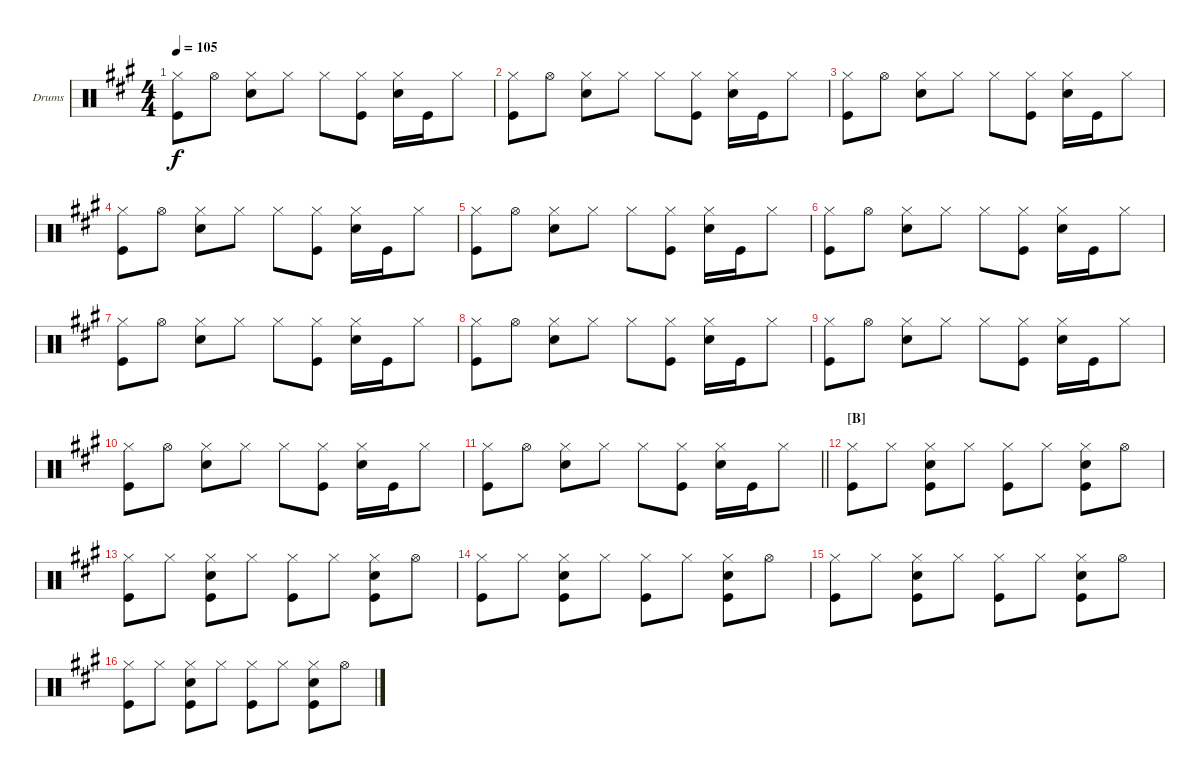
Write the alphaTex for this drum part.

\bracketExtendMode groupsimilarinstruments
\firstSystemTrackNameOrientation horizontal
\otherSystemsTrackNameOrientation horizontal
\track ("Fabrizio Moretti" "Drums") {instrument percussion}
\staff {score}
\articulation defaults
\ts (4 4)
\tempo 105
\clef neutral
\ks a
("Hi-Hat (closed)" "Kick (hit)").8{dy f} "Hi-Hat (open)".8 ("Hi-Hat (closed)" "Snare (hit) 2").8 "Hi-Hat (closed)".8 "Hi-Hat (closed)".8 ("Hi-Hat (closed)" "Kick (hit)").8 ("Hi-Hat (closed)" "Snare (hit) 2").16 "Kick (hit)".16 "Hi-Hat (closed)".8 |
("Hi-Hat (closed)" "Kick (hit)").8 "Hi-Hat (open)".8 ("Hi-Hat (closed)" "Snare (hit) 2").8 "Hi-Hat (closed)".8 "Hi-Hat (closed)".8 ("Hi-Hat (closed)" "Kick (hit)").8 ("Hi-Hat (closed)" "Snare (hit) 2").16 "Kick (hit)".16 "Hi-Hat (closed)".8 |
("Hi-Hat (closed)" "Kick (hit)").8 "Hi-Hat (open)".8 ("Hi-Hat (closed)" "Snare (hit) 2").8 "Hi-Hat (closed)".8 "Hi-Hat (closed)".8 ("Hi-Hat (closed)" "Kick (hit)").8 ("Hi-Hat (closed)" "Snare (hit) 2").16 "Kick (hit)".16 "Hi-Hat (closed)".8 |
("Hi-Hat (closed)" "Kick (hit)").8 "Hi-Hat (open)".8 ("Hi-Hat (closed)" "Snare (hit) 2").8 "Hi-Hat (closed)".8 "Hi-Hat (closed)".8 ("Hi-Hat (closed)" "Kick (hit)").8 ("Hi-Hat (closed)" "Snare (hit) 2").16 "Kick (hit)".16 "Hi-Hat (closed)".8 |
("Hi-Hat (closed)" "Kick (hit)").8 "Hi-Hat (open)".8 ("Hi-Hat (closed)" "Snare (hit) 2").8 "Hi-Hat (closed)".8 "Hi-Hat (closed)".8 ("Hi-Hat (closed)" "Kick (hit)").8 ("Hi-Hat (closed)" "Snare (hit) 2").16 "Kick (hit)".16 "Hi-Hat (closed)".8 |
("Hi-Hat (closed)" "Kick (hit)").8 "Hi-Hat (open)".8 ("Hi-Hat (closed)" "Snare (hit) 2").8 "Hi-Hat (closed)".8 "Hi-Hat (closed)".8 ("Hi-Hat (closed)" "Kick (hit)").8 ("Hi-Hat (closed)" "Snare (hit) 2").16 "Kick (hit)".16 "Hi-Hat (closed)".8 |
("Hi-Hat (closed)" "Kick (hit)").8 "Hi-Hat (open)".8 ("Hi-Hat (closed)" "Snare (hit) 2").8 "Hi-Hat (closed)".8 "Hi-Hat (closed)".8 ("Hi-Hat (closed)" "Kick (hit)").8 ("Hi-Hat (closed)" "Snare (hit) 2").16 "Kick (hit)".16 "Hi-Hat (closed)".8 |
("Hi-Hat (closed)" "Kick (hit)").8 "Hi-Hat (open)".8 ("Hi-Hat (closed)" "Snare (hit) 2").8 "Hi-Hat (closed)".8 "Hi-Hat (closed)".8 ("Hi-Hat (closed)" "Kick (hit)").8 ("Hi-Hat (closed)" "Snare (hit) 2").16 "Kick (hit)".16 "Hi-Hat (closed)".8 |
("Hi-Hat (closed)" "Kick (hit)").8 "Hi-Hat (open)".8 ("Hi-Hat (closed)" "Snare (hit) 2").8 "Hi-Hat (closed)".8 "Hi-Hat (closed)".8 ("Hi-Hat (closed)" "Kick (hit)").8 ("Hi-Hat (closed)" "Snare (hit) 2").16 "Kick (hit)".16 "Hi-Hat (closed)".8 |
("Hi-Hat (closed)" "Kick (hit)").8 "Hi-Hat (open)".8 ("Hi-Hat (closed)" "Snare (hit) 2").8 "Hi-Hat (closed)".8 "Hi-Hat (closed)".8 ("Hi-Hat (closed)" "Kick (hit)").8 ("Hi-Hat (closed)" "Snare (hit) 2").16 "Kick (hit)".16 "Hi-Hat (closed)".8 |
\barLineRight lightlight
("Hi-Hat (closed)" "Kick (hit)").8 "Hi-Hat (open)".8 ("Hi-Hat (closed)" "Snare (hit) 2").8 "Hi-Hat (closed)".8 "Hi-Hat (closed)".8 ("Hi-Hat (closed)" "Kick (hit)").8 ("Hi-Hat (closed)" "Snare (hit) 2").16 "Kick (hit)".16 "Hi-Hat (closed)".8 |
\section ("B" "")
("Hi-Hat (closed)" "Kick (hit)").8 "Hi-Hat (closed)".8 ("Hi-Hat (closed)" "Snare (hit) 2" "Kick (hit)").8 "Hi-Hat (closed)".8 ("Hi-Hat (closed)" "Kick (hit)").8 "Hi-Hat (closed)".8 ("Hi-Hat (closed)" "Snare (hit) 2" "Kick (hit)").8 "Hi-Hat (open)".8 |
("Hi-Hat (closed)" "Kick (hit)").8 "Hi-Hat (closed)".8 ("Hi-Hat (closed)" "Snare (hit) 2" "Kick (hit)").8 "Hi-Hat (closed)".8 ("Hi-Hat (closed)" "Kick (hit)").8 "Hi-Hat (closed)".8 ("Hi-Hat (closed)" "Snare (hit) 2" "Kick (hit)").8 "Hi-Hat (open)".8 |
("Hi-Hat (closed)" "Kick (hit)").8 "Hi-Hat (closed)".8 ("Hi-Hat (closed)" "Snare (hit) 2" "Kick (hit)").8 "Hi-Hat (closed)".8 ("Hi-Hat (closed)" "Kick (hit)").8 "Hi-Hat (closed)".8 ("Hi-Hat (closed)" "Snare (hit) 2" "Kick (hit)").8 "Hi-Hat (open)".8 |
("Hi-Hat (closed)" "Kick (hit)").8 "Hi-Hat (closed)".8 ("Hi-Hat (closed)" "Snare (hit) 2" "Kick (hit)").8 "Hi-Hat (closed)".8 ("Hi-Hat (closed)" "Kick (hit)").8 "Hi-Hat (closed)".8 ("Hi-Hat (closed)" "Snare (hit) 2" "Kick (hit)").8 "Hi-Hat (open)".8 |
("Hi-Hat (closed)" "Kick (hit)").8 "Hi-Hat (closed)".8 ("Hi-Hat (closed)" "Snare (hit) 2" "Kick (hit)").8 "Hi-Hat (closed)".8 ("Hi-Hat (closed)" "Kick (hit)").8 "Hi-Hat (closed)".8 ("Hi-Hat (closed)" "Snare (hit) 2" "Kick (hit)").8 "Hi-Hat (open)".8
